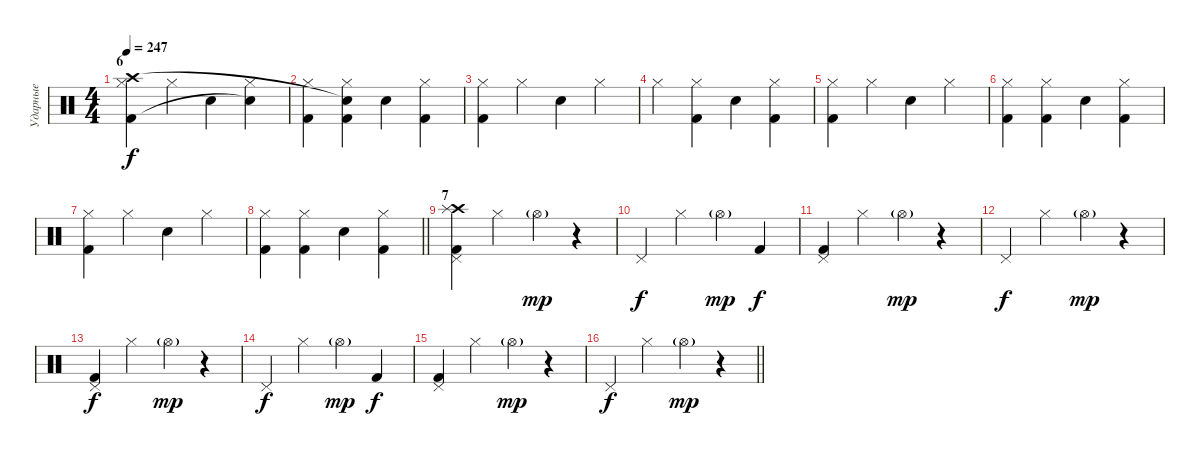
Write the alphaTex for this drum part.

\track ("Ударные" "Ударные") {instrument percussion}
\staff {score}
\articulation defaults
\ts (4 4)
\section ("" "6")
\tempo 247
\clef neutral
\ks c
("Hi-Hat (closed)" "Kick (hit) 2" "Crash high (hit)").4{dy f} "Hi-Hat (closed)".4 "Snare (hit) 2".4 ("Hi-Hat (closed)" "Snare (hit)"{t}).4 |
("Hi-Hat (closed)" "Kick (hit) 2").4 ("Hi-Hat (closed)" "Kick (hit) 2" "Snare (hit)"{t}).4 "Snare (hit) 2".4 ("Hi-Hat (closed)" "Kick (hit) 2").4 |
("Hi-Hat (closed)" "Kick (hit) 2").4 "Hi-Hat (closed)".4 "Snare (hit) 2".4 "Hi-Hat (closed)".4 |
"Hi-Hat (closed)".4 ("Hi-Hat (closed)" "Kick (hit) 2").4 "Snare (hit) 2".4 ("Hi-Hat (closed)" "Kick (hit) 2").4 |
("Hi-Hat (closed)" "Kick (hit) 2").4 "Hi-Hat (closed)".4 "Snare (hit) 2".4 "Hi-Hat (closed)".4 |
("Hi-Hat (closed)" "Kick (hit) 2").4 ("Hi-Hat (closed)" "Kick (hit) 2").4 "Snare (hit) 2".4 ("Hi-Hat (closed)" "Kick (hit) 2").4 |
("Hi-Hat (closed)" "Kick (hit) 2").4 "Hi-Hat (closed)".4 "Snare (hit) 2".4 "Hi-Hat (closed)".4 |
\barLineRight lightlight
("Hi-Hat (closed)" "Kick (hit) 2").4 ("Hi-Hat (closed)" "Kick (hit) 2").4 "Snare (hit) 2".4 ("Hi-Hat (closed)" "Kick (hit) 2").4 |
\section ("" "7")
("Pedal Hi-Hat (hit)" "Crash high (hit)" "Splash (hit)" "Kick (hit) 2").4 "Hi-Hat (closed)".4 "Hi-Hat (open)"{g}.4{dy mp} r.4 |
"Pedal Hi-Hat (hit)".4{dy f} "Hi-Hat (closed)".4 "Hi-Hat (open)"{g}.4{dy mp} "Kick (hit) 2".4{dy f} |
("Pedal Hi-Hat (hit)" "Kick (hit) 2").4 "Hi-Hat (closed)".4 "Hi-Hat (open)"{g}.4{dy mp} r.4 |
"Pedal Hi-Hat (hit)".4{dy f} "Hi-Hat (closed)".4 "Hi-Hat (open)"{g}.4{dy mp} r.4 |
("Pedal Hi-Hat (hit)" "Kick (hit) 2").4{dy f} "Hi-Hat (closed)".4 "Hi-Hat (open)"{g}.4{dy mp} r.4 |
"Pedal Hi-Hat (hit)".4{dy f} "Hi-Hat (closed)".4 "Hi-Hat (open)"{g}.4{dy mp} "Kick (hit) 2".4{dy f} |
("Pedal Hi-Hat (hit)" "Kick (hit) 2").4 "Hi-Hat (closed)".4 "Hi-Hat (open)"{g}.4{dy mp} r.4 |
\barLineRight lightlight "Pedal Hi-Hat (hit)".4{dy f} "Hi-Hat (closed)".4 "Hi-Hat (open)"{g}.4{dy mp}
r.4
